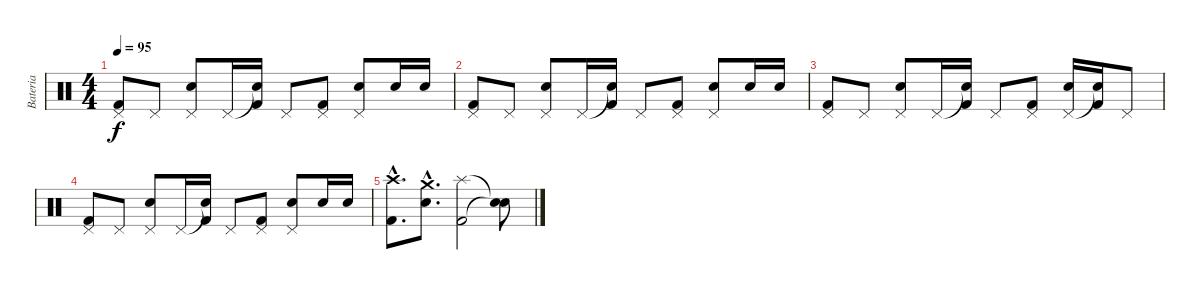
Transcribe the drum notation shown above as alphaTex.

\track ("Bateria" "Bateria") {instrument percussion}
\staff {score}
\articulation defaults
\ts (4 4)
\tempo 95
\clef neutral
\ks c
("Pedal Hi-Hat (hit)" "Kick (hit) 2").8{dy f} "Pedal Hi-Hat (hit)".8 ("Pedal Hi-Hat (hit)" "Electric Snare (hit)").8 "Pedal Hi-Hat (hit)".16 ("Snare (hit)"{t} "Kick (hit) 2").16 "Pedal Hi-Hat (hit)".8 ("Pedal Hi-Hat (hit)" "Kick (hit) 2").8 ("Pedal Hi-Hat (hit)" "Electric Snare (hit)").8 "Electric Snare (hit)".16 "Electric Snare (hit)".16 |
("Pedal Hi-Hat (hit)" "Kick (hit) 2").8 "Pedal Hi-Hat (hit)".8 ("Pedal Hi-Hat (hit)" "Electric Snare (hit)").8 "Pedal Hi-Hat (hit)".16 ("Snare (hit)"{t} "Kick (hit) 2").16 "Pedal Hi-Hat (hit)".8 ("Pedal Hi-Hat (hit)" "Kick (hit) 2").8 ("Pedal Hi-Hat (hit)" "Electric Snare (hit)").8 "Electric Snare (hit)".16 "Electric Snare (hit)".16 |
("Pedal Hi-Hat (hit)" "Kick (hit) 2").8 "Pedal Hi-Hat (hit)".8 ("Pedal Hi-Hat (hit)" "Electric Snare (hit)").8 "Pedal Hi-Hat (hit)".16 ("Snare (hit)"{t} "Kick (hit) 2").16 "Pedal Hi-Hat (hit)".8 ("Pedal Hi-Hat (hit)" "Kick (hit) 2").8 ("Pedal Hi-Hat (hit)" "Electric Snare (hit)").16 ("Snare (hit)"{t} "Kick (hit) 2").16 "Pedal Hi-Hat (hit)".8 |
("Pedal Hi-Hat (hit)" "Kick (hit) 2").8 "Pedal Hi-Hat (hit)".8 ("Pedal Hi-Hat (hit)" "Electric Snare (hit)").8 "Pedal Hi-Hat (hit)".16 ("Snare (hit)"{t} "Kick (hit) 2").16 "Pedal Hi-Hat (hit)".8 ("Pedal Hi-Hat (hit)" "Kick (hit) 2").8 ("Pedal Hi-Hat (hit)" "Electric Snare (hit)").8 "Electric Snare (hit)".16 "Electric Snare (hit)".16 |
("Crash high (hit)"{hac} "Kick (hit) 2"{hac}).8{d} ("Crash medium (hit)"{hac} "Electric Snare (hit)"{hac}).8{d} ("Splash (hit)" "Kick (hit) 2").2 ("Snare (hit)"{t} "Snare (hit)"{t}).8
